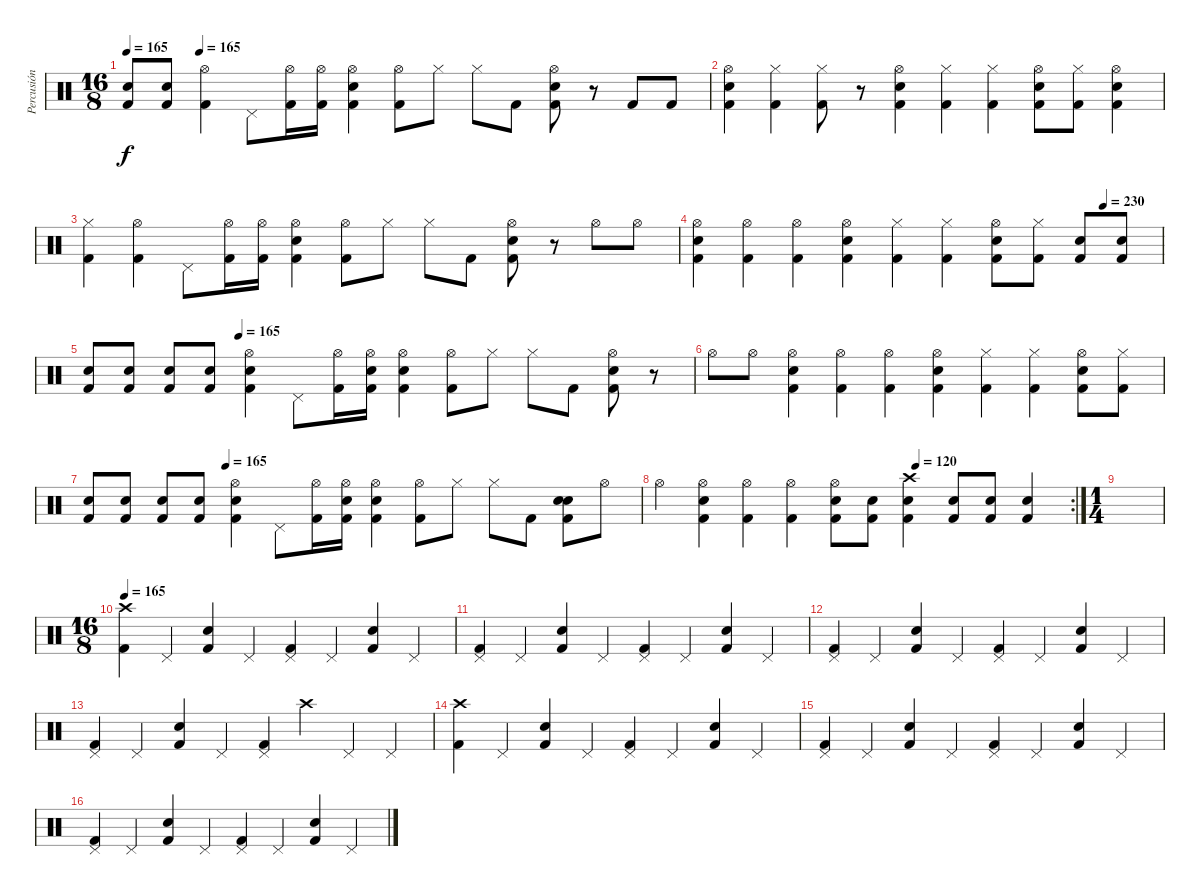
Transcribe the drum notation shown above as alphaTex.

\track ("Percusión" "Percusión") {instrument percussion}
\staff {score}
\articulation defaults
\ts (16 8)
\tempo 165
\tempo (165 0.125)
\clef neutral
\ks c
("Electric Snare (hit)" "Kick (hit) 2").8{dy f} ("Electric Snare (hit)" "Kick (hit) 2").8 ("Hi-Hat (open)" "Kick (hit) 2").4 "Pedal Hi-Hat (hit)".8 ("Hi-Hat (open)" "Kick (hit) 2").16 ("Hi-Hat (open)" "Kick (hit) 2").16 ("Electric Snare (hit)" "Hi-Hat (open)" "Kick (hit) 2").4 ("Kick (hit) 2" "Hi-Hat (open)").8 "Hi-Hat (closed)".8 "Hi-Hat (closed)".8 "Kick (hit) 2".8 ("Hi-Hat (open)" "Kick (hit) 2" "Electric Snare (hit)").8 r.8 "Kick (hit) 2".8 "Kick (hit) 2".8 |
("Hi-Hat (open)" "Electric Snare (hit)" "Kick (hit) 2").4 ("Hi-Hat (closed)" "Kick (hit) 2").4 ("Hi-Hat (closed)" "Kick (hit) 2").8 r.8 ("Electric Snare (hit)" "Kick (hit) 2" "Hi-Hat (open)").4 ("Hi-Hat (closed)" "Kick (hit) 2").4 ("Hi-Hat (closed)" "Kick (hit) 2").4 ("Electric Snare (hit)" "Kick (hit) 2" "Hi-Hat (open)").8 ("Hi-Hat (closed)" "Kick (hit) 2").8 ("Electric Snare (hit)" "Kick (hit) 2" "Hi-Hat (open)").4 |
("Hi-Hat (closed)" "Kick (hit) 2").4 ("Hi-Hat (open)" "Kick (hit) 2").4 "Pedal Hi-Hat (hit)".8 ("Hi-Hat (open)" "Kick (hit) 2").16 ("Hi-Hat (open)" "Kick (hit) 2").16 ("Electric Snare (hit)" "Hi-Hat (open)" "Kick (hit) 2").4 ("Hi-Hat (open)" "Kick (hit) 2").8 "Hi-Hat (closed)".8 "Hi-Hat (closed)".8 "Kick (hit) 2".8 ("Electric Snare (hit)" "Hi-Hat (open)" "Kick (hit) 2").8 r.8 "Hi-Hat (open)".8 "Hi-Hat (open)".8 |
\tempo (230 0.875)
("Electric Snare (hit)" "Kick (hit) 2" "Hi-Hat (open)").4 ("Hi-Hat (open)" "Kick (hit) 2").4 ("Hi-Hat (open)" "Kick (hit) 2").4 ("Electric Snare (hit)" "Hi-Hat (open)" "Kick (hit) 2").4 ("Hi-Hat (closed)" "Kick (hit) 2").4 ("Hi-Hat (closed)" "Kick (hit) 2").4 ("Electric Snare (hit)" "Kick (hit) 2" "Hi-Hat (open)").8 ("Hi-Hat (closed)" "Kick (hit) 2").8 ("Electric Snare (hit)" "Kick (hit) 2").8 ("Electric Snare (hit)" "Kick (hit) 2").8 |
\tempo (165 0.25)
("Electric Snare (hit)" "Kick (hit) 2").8 ("Electric Snare (hit)" "Kick (hit) 2").8 ("Electric Snare (hit)" "Kick (hit) 2").8 ("Electric Snare (hit)" "Kick (hit) 2").8 ("Hi-Hat (open)" "Electric Snare (hit)" "Kick (hit) 2").4 "Pedal Hi-Hat (hit)".8 ("Hi-Hat (open)" "Kick (hit) 2").16 ("Hi-Hat (open)" "Electric Snare (hit)" "Kick (hit) 2").16 ("Electric Snare (hit)" "Hi-Hat (open)" "Kick (hit) 2").4 ("Kick (hit) 2" "Hi-Hat (open)").8 "Hi-Hat (closed)".8 "Hi-Hat (closed)".8 "Kick (hit) 2".8 ("Electric Snare (hit)" "Hi-Hat (open)" "Kick (hit) 2").8 r.8 |
"Hi-Hat (open)".8 "Hi-Hat (open)".8 ("Electric Snare (hit)" "Hi-Hat (open)" "Kick (hit) 2").4 ("Hi-Hat (open)" "Kick (hit) 2").4 ("Hi-Hat (open)" "Kick (hit) 2").4 ("Electric Snare (hit)" "Hi-Hat (open)" "Kick (hit) 2").4 ("Hi-Hat (closed)" "Kick (hit) 2").4 ("Hi-Hat (closed)" "Kick (hit) 2").4 ("Electric Snare (hit)" "Hi-Hat (open)" "Kick (hit) 2").8 ("Hi-Hat (closed)" "Kick (hit) 2").8 |
\tempo (165 0.25)
("Electric Snare (hit)" "Kick (hit) 2").8 ("Electric Snare (hit)" "Kick (hit) 2").8 ("Electric Snare (hit)" "Kick (hit) 2").8 ("Electric Snare (hit)" "Kick (hit) 2").8 ("Hi-Hat (open)" "Electric Snare (hit)" "Kick (hit) 2").4 "Pedal Hi-Hat (hit)".8 ("Hi-Hat (open)" "Kick (hit) 2").16 ("Electric Snare (hit)" "Hi-Hat (open)" "Kick (hit) 2").16 ("Electric Snare (hit)" "Hi-Hat (open)" "Kick (hit) 2").4 ("Hi-Hat (open)" "Kick (hit) 2").8 "Hi-Hat (closed)".8 "Hi-Hat (closed)".8 "Kick (hit) 2".8 ("Electric Snare (hit)" "Electric Snare (hit)" "Kick (hit) 2").8 "Hi-Hat (open)".8 |
\rc 2
\tempo (120 0.625)
"Hi-Hat (open)".4 ("Electric Snare (hit)" "Hi-Hat (open)" "Kick (hit) 2").4 ("Hi-Hat (open)" "Kick (hit) 2").4 ("Hi-Hat (open)" "Kick (hit) 2").4 ("Electric Snare (hit)" "Hi-Hat (open)" "Kick (hit) 2").8 ("Electric Snare (hit)" "Kick (hit) 2").8 ("Crash high (hit)" "Electric Snare (hit)" "Kick (hit) 2").4 ("Electric Snare (hit)" "Kick (hit) 2").8 ("Electric Snare (hit)" "Kick (hit) 2").8 ("Electric Snare (hit)" "Kick (hit) 2").4 |
\ts (1 4)
|
\ts (16 8)
\tempo 165
("Crash high (hit)" "Kick (hit) 2").4 "Pedal Hi-Hat (hit)".4 ("Electric Snare (hit)" "Kick (hit) 2").4 "Pedal Hi-Hat (hit)".4 ("Pedal Hi-Hat (hit)" "Kick (hit) 2").4 "Pedal Hi-Hat (hit)".4 ("Electric Snare (hit)" "Kick (hit) 2").4 "Pedal Hi-Hat (hit)".4 |
("Pedal Hi-Hat (hit)" "Kick (hit) 2").4 "Pedal Hi-Hat (hit)".4 ("Electric Snare (hit)" "Kick (hit) 2").4 "Pedal Hi-Hat (hit)".4 ("Pedal Hi-Hat (hit)" "Kick (hit) 2").4 "Pedal Hi-Hat (hit)".4 ("Electric Snare (hit)" "Kick (hit) 2").4 "Pedal Hi-Hat (hit)".4 |
("Pedal Hi-Hat (hit)" "Kick (hit) 2").4 "Pedal Hi-Hat (hit)".4 ("Electric Snare (hit)" "Kick (hit) 2").4 "Pedal Hi-Hat (hit)".4 ("Pedal Hi-Hat (hit)" "Kick (hit) 2").4 "Pedal Hi-Hat (hit)".4 ("Electric Snare (hit)" "Kick (hit) 2").4 "Pedal Hi-Hat (hit)".4 |
("Pedal Hi-Hat (hit)" "Kick (hit) 2").4 "Pedal Hi-Hat (hit)".4 ("Electric Snare (hit)" "Kick (hit) 2").4 "Pedal Hi-Hat (hit)".4 ("Pedal Hi-Hat (hit)" "Kick (hit) 2").4 "Crash high (hit)".4 "Pedal Hi-Hat (hit)".4 "Pedal Hi-Hat (hit)".4 |
("Crash high (hit)" "Kick (hit) 2").4 "Pedal Hi-Hat (hit)".4 ("Electric Snare (hit)" "Kick (hit) 2").4 "Pedal Hi-Hat (hit)".4 ("Pedal Hi-Hat (hit)" "Kick (hit) 2").4 "Pedal Hi-Hat (hit)".4 ("Electric Snare (hit)" "Kick (hit) 2").4 "Pedal Hi-Hat (hit)".4 |
("Pedal Hi-Hat (hit)" "Kick (hit) 2").4 "Pedal Hi-Hat (hit)".4 ("Electric Snare (hit)" "Kick (hit) 2").4 "Pedal Hi-Hat (hit)".4 ("Pedal Hi-Hat (hit)" "Kick (hit) 2").4 "Pedal Hi-Hat (hit)".4 ("Electric Snare (hit)" "Kick (hit) 2").4 "Pedal Hi-Hat (hit)".4 |
("Pedal Hi-Hat (hit)" "Kick (hit) 2").4 "Pedal Hi-Hat (hit)".4 ("Electric Snare (hit)" "Kick (hit) 2").4 "Pedal Hi-Hat (hit)".4 ("Pedal Hi-Hat (hit)" "Kick (hit) 2").4 "Pedal Hi-Hat (hit)".4 ("Electric Snare (hit)" "Kick (hit) 2").4 "Pedal Hi-Hat (hit)".4
